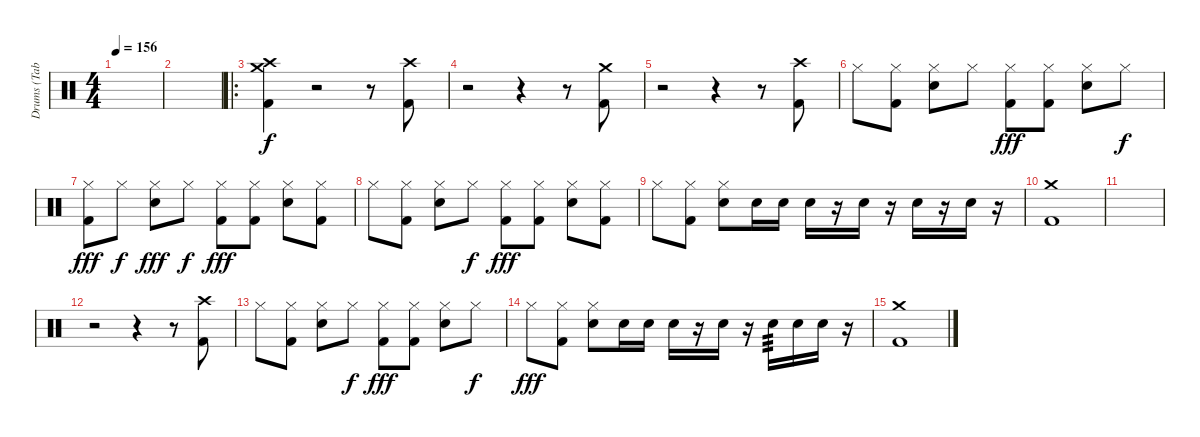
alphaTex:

\track ("Drums (Tab By Drumminger)" "Drums (Tab") {instrument percussion}
\staff {score}
\articulation defaults
\ts (4 4)
\tempo 156
\clef neutral
\ks c
|
|
\ro
("Crash medium (hit)" "Crash high (hit)" "Kick (hit) 2").4 r.2 r.8 ("Crash high (hit)" "Kick (hit) 2").8 |
r.2 r.4 r.8 ("Crash medium (hit)" "Kick (hit) 2").8 |
r.2 r.4 r.8 ("Crash high (hit)" "Kick (hit) 2").8 |
"Hi-Hat (closed)".8 ("Hi-Hat (closed)" "Kick (hit) 2").8 ("Hi-Hat (closed)" "Snare (hit) 2").8 "Hi-Hat (closed)".8{dy f} ("Hi-Hat (closed)" "Kick (hit) 2").8{dy fff} ("Hi-Hat (closed)" "Kick (hit) 2").8 ("Hi-Hat (closed)" "Snare (hit) 2").8 "Hi-Hat (closed)".8{dy f} |
("Hi-Hat (closed)" "Kick (hit) 2").8{dy fff} "Hi-Hat (closed)".8{dy f} ("Hi-Hat (closed)" "Snare (hit) 2").8{dy fff} "Hi-Hat (closed)".8{dy f} ("Hi-Hat (closed)" "Kick (hit) 2").8{dy fff} ("Hi-Hat (closed)" "Kick (hit) 2").8 ("Hi-Hat (closed)" "Snare (hit) 2").8 ("Hi-Hat (closed)" "Kick (hit) 2").8 |
"Hi-Hat (closed)".8 ("Hi-Hat (closed)" "Kick (hit) 2").8 ("Hi-Hat (closed)" "Snare (hit) 2").8 "Hi-Hat (closed)".8{dy f} ("Hi-Hat (closed)" "Kick (hit) 2").8{dy fff} ("Hi-Hat (closed)" "Kick (hit) 2").8 ("Hi-Hat (closed)" "Snare (hit) 2").8 ("Hi-Hat (closed)" "Kick (hit) 2").8 |
"Hi-Hat (closed)".8 ("Hi-Hat (closed)" "Kick (hit) 2").8 ("Hi-Hat (closed)" "Snare (hit) 2").8 "Snare (hit) 2".16 "Snare (hit) 2".16 "Snare (hit) 2".16 r.16 "Snare (hit) 2".16 r.16 "Snare (hit) 2".16 r.16 "Snare (hit) 2".16 r.16 |
("Crash medium (hit)" "Kick (hit) 2").1 |
|
r.2 r.4 r.8 ("Crash high (hit)" "Kick (hit) 2").8 |
"Hi-Hat (closed)".8 ("Hi-Hat (closed)" "Kick (hit) 2").8 ("Hi-Hat (closed)" "Snare (hit) 2").8 "Hi-Hat (closed)".8{dy f} ("Hi-Hat (closed)" "Kick (hit) 2").8{dy fff} ("Hi-Hat (closed)" "Kick (hit) 2").8 ("Hi-Hat (closed)" "Snare (hit) 2").8 "Hi-Hat (closed)".8{dy f} |
"Hi-Hat (closed)".8{dy fff} ("Hi-Hat (closed)" "Kick (hit) 2").8 ("Hi-Hat (closed)" "Snare (hit) 2").8 "Snare (hit) 2".16 "Snare (hit) 2".16 "Snare (hit) 2".16 r.16 "Snare (hit) 2".16 r.16 "Snare (hit) 2".16{tp 3} "Snare (hit) 2".16 "Snare (hit) 2".16 r.16 |
("Crash medium (hit)" "Kick (hit) 2").1
